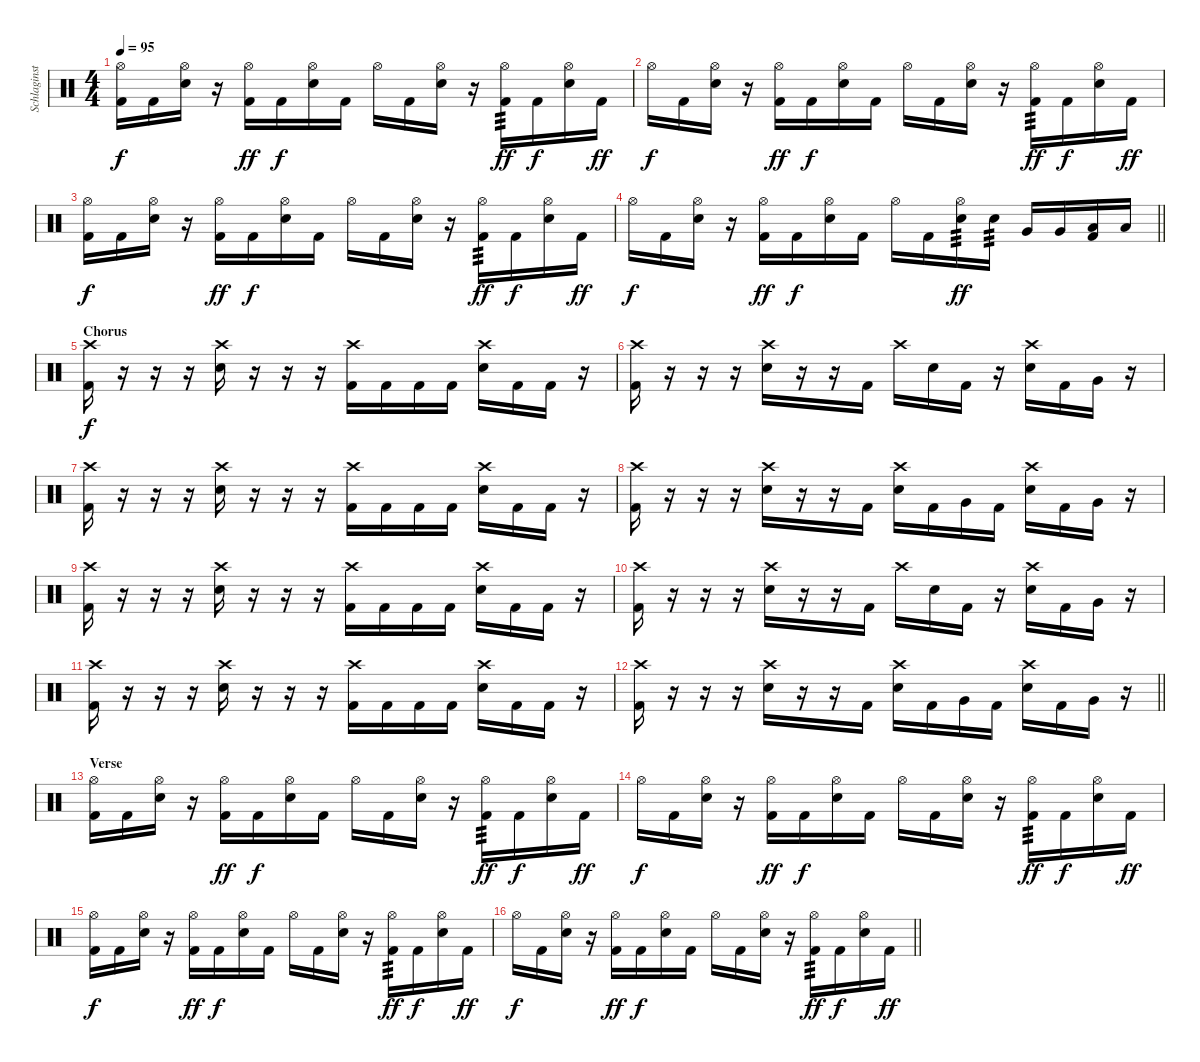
\track ("Schlaginstrumente - Auswahl" "Schlaginst") {instrument percussion}
\staff {score}
\articulation defaults
\ts (4 4)
\tempo 95
\clef neutral
\ks c
("Hi-Hat (open)" "Kick (hit) 2").16{dy f} "Kick (hit) 2".16 ("Hi-Hat (open)" "Electric Snare (hit)").16 r.16 ("Hi-Hat (open)" "Kick (hit) 2").16{dy ff} "Kick (hit) 2".16{dy f} ("Hi-Hat (open)" "Electric Snare (hit)").16 "Kick (hit) 2".16 "Hi-Hat (open)".16 "Kick (hit) 2".16 ("Hi-Hat (open)" "Electric Snare (hit)").16 r.16 ("Hi-Hat (open)" "Kick (hit) 2").16{tp 3 dy ff} "Kick (hit) 2".16{dy f} ("Hi-Hat (open)" "Electric Snare (hit)").16 "Kick (hit) 2".16{dy ff} |
"Hi-Hat (open)".16{dy f} "Kick (hit) 2".16 ("Hi-Hat (open)" "Electric Snare (hit)").16 r.16 ("Hi-Hat (open)" "Kick (hit) 2").16{dy ff} "Kick (hit) 2".16{dy f} ("Hi-Hat (open)" "Electric Snare (hit)").16 "Kick (hit) 2".16 "Hi-Hat (open)".16 "Kick (hit) 2".16 ("Hi-Hat (open)" "Electric Snare (hit)").16 r.16 ("Hi-Hat (open)" "Kick (hit) 2").16{tp 3 dy ff} "Kick (hit) 2".16{dy f} ("Hi-Hat (open)" "Electric Snare (hit)").16 "Kick (hit) 2".16{dy ff} |
("Hi-Hat (open)" "Kick (hit) 2").16{dy f} "Kick (hit) 2".16 ("Hi-Hat (open)" "Electric Snare (hit)").16 r.16 ("Hi-Hat (open)" "Kick (hit) 2").16{dy ff} "Kick (hit) 2".16{dy f} ("Hi-Hat (open)" "Electric Snare (hit)").16 "Kick (hit) 2".16 "Hi-Hat (open)".16 "Kick (hit) 2".16 ("Hi-Hat (open)" "Electric Snare (hit)").16 r.16 ("Hi-Hat (open)" "Kick (hit) 2").16{tp 3 dy ff} "Kick (hit) 2".16{dy f} ("Hi-Hat (open)" "Electric Snare (hit)").16 "Kick (hit) 2".16{dy ff} |
\barLineRight lightlight "Hi-Hat (open)".16{dy f} "Kick (hit) 2".16
("Hi-Hat (open)" "Electric Snare (hit)").16 r.16 ("Hi-Hat (open)" "Kick (hit) 2").16{dy ff} "Kick (hit) 2".16{dy f} ("Hi-Hat (open)" "Electric Snare (hit)").16 "Kick (hit) 2".16 "Hi-Hat (open)".16 "Kick (hit) 2".16 ("Hi-Hat (open)" "Electric Snare (hit)").16{tp 3 dy ff} "Electric Snare (hit)".16{tp 3} "Very Low Tom (hit)".16 "Very Low Tom (hit)".16 ("Low Floor Tom (hit)" "Kick (hit) 2").16 "Low Floor Tom (hit)".16 |
\section ("" "Chorus")
("Crash high (hit)" "Kick (hit) 2").16{dy f} r.16 r.16 r.16 ("Crash high (hit)" "Electric Snare (hit)").16 r.16 r.16 r.16 ("Crash high (hit)" "Kick (hit) 2").16 "Kick (hit) 2".16 "Kick (hit) 2".16 "Kick (hit) 2".16 ("Crash high (hit)" "Electric Snare (hit)").16 "Kick (hit) 2".16 "Kick (hit) 2".16 r.16 |
("Crash high (hit)" "Kick (hit) 2").16 r.16 r.16 r.16 ("Crash high (hit)" "Electric Snare (hit)").16 r.16 r.16 "Kick (hit) 2".16 "Crash high (hit)".16 "Electric Snare (hit)".16 "Kick (hit) 2".16 r.16 ("Crash high (hit)" "Electric Snare (hit)").16 "Kick (hit) 2".16 "Very Low Tom (hit)".16 r.16 |
("Crash high (hit)" "Kick (hit) 2").16 r.16 r.16 r.16 ("Crash high (hit)" "Electric Snare (hit)").16 r.16 r.16 r.16 ("Crash high (hit)" "Kick (hit) 2").16 "Kick (hit) 2".16 "Kick (hit) 2".16 "Kick (hit) 2".16 ("Crash high (hit)" "Electric Snare (hit)").16 "Kick (hit) 2".16 "Kick (hit) 2".16 r.16 |
("Crash high (hit)" "Kick (hit) 2").16 r.16 r.16 r.16 ("Crash high (hit)" "Electric Snare (hit)").16 r.16 r.16 "Kick (hit) 2".16 ("Crash high (hit)" "Electric Snare (hit)").16 "Kick (hit) 2".16 "Very Low Tom (hit)".16 "Kick (hit) 2".16 ("Crash high (hit)" "Electric Snare (hit)").16 "Kick (hit) 2".16 "Very Low Tom (hit)".16 r.16 |
("Crash high (hit)" "Kick (hit) 2").16 r.16 r.16 r.16 ("Crash high (hit)" "Electric Snare (hit)").16 r.16 r.16 r.16 ("Crash high (hit)" "Kick (hit) 2").16 "Kick (hit) 2".16 "Kick (hit) 2".16 "Kick (hit) 2".16 ("Crash high (hit)" "Electric Snare (hit)").16 "Kick (hit) 2".16 "Kick (hit) 2".16 r.16 |
("Crash high (hit)" "Kick (hit) 2").16 r.16 r.16 r.16 ("Crash high (hit)" "Electric Snare (hit)").16 r.16 r.16 "Kick (hit) 2".16 "Crash high (hit)".16 "Electric Snare (hit)".16 "Kick (hit) 2".16 r.16 ("Crash high (hit)" "Electric Snare (hit)").16 "Kick (hit) 2".16 "Very Low Tom (hit)".16 r.16 |
("Crash high (hit)" "Kick (hit) 2").16 r.16 r.16 r.16 ("Crash high (hit)" "Electric Snare (hit)").16 r.16 r.16 r.16 ("Crash high (hit)" "Kick (hit) 2").16 "Kick (hit) 2".16 "Kick (hit) 2".16 "Kick (hit) 2".16 ("Crash high (hit)" "Electric Snare (hit)").16 "Kick (hit) 2".16 "Kick (hit) 2".16 r.16 |
\barLineRight lightlight
("Crash high (hit)" "Kick (hit) 2").16 r.16 r.16 r.16 ("Crash high (hit)" "Electric Snare (hit)").16 r.16 r.16 "Kick (hit) 2".16 ("Crash high (hit)" "Electric Snare (hit)").16 "Kick (hit) 2".16 "Very Low Tom (hit)".16 "Kick (hit) 2".16 ("Crash high (hit)" "Electric Snare (hit)").16 "Kick (hit) 2".16 "Very Low Tom (hit)".16 r.16 |
\section ("" "Verse")
("Hi-Hat (open)" "Kick (hit) 2").16 "Kick (hit) 2".16 ("Hi-Hat (open)" "Electric Snare (hit)").16 r.16 ("Hi-Hat (open)" "Kick (hit) 2").16{dy ff} "Kick (hit) 2".16{dy f} ("Hi-Hat (open)" "Electric Snare (hit)").16 "Kick (hit) 2".16 "Hi-Hat (open)".16 "Kick (hit) 2".16 ("Hi-Hat (open)" "Electric Snare (hit)").16 r.16 ("Hi-Hat (open)" "Kick (hit) 2").16{tp 3 dy ff} "Kick (hit) 2".16{dy f} ("Hi-Hat (open)" "Electric Snare (hit)").16 "Kick (hit) 2".16{dy ff} |
"Hi-Hat (open)".16{dy f} "Kick (hit) 2".16 ("Hi-Hat (open)" "Electric Snare (hit)").16 r.16 ("Hi-Hat (open)" "Kick (hit) 2").16{dy ff} "Kick (hit) 2".16{dy f} ("Hi-Hat (open)" "Electric Snare (hit)").16 "Kick (hit) 2".16 "Hi-Hat (open)".16 "Kick (hit) 2".16 ("Hi-Hat (open)" "Electric Snare (hit)").16 r.16 ("Hi-Hat (open)" "Kick (hit) 2").16{tp 3 dy ff} "Kick (hit) 2".16{dy f} ("Hi-Hat (open)" "Electric Snare (hit)").16 "Kick (hit) 2".16{dy ff} |
("Hi-Hat (open)" "Kick (hit) 2").16{dy f} "Kick (hit) 2".16 ("Hi-Hat (open)" "Electric Snare (hit)").16 r.16 ("Hi-Hat (open)" "Kick (hit) 2").16{dy ff} "Kick (hit) 2".16{dy f} ("Hi-Hat (open)" "Electric Snare (hit)").16 "Kick (hit) 2".16 "Hi-Hat (open)".16 "Kick (hit) 2".16 ("Hi-Hat (open)" "Electric Snare (hit)").16 r.16 ("Hi-Hat (open)" "Kick (hit) 2").16{tp 3 dy ff} "Kick (hit) 2".16{dy f} ("Hi-Hat (open)" "Electric Snare (hit)").16 "Kick (hit) 2".16{dy ff} |
\barLineRight lightlight "Hi-Hat (open)".16{dy f} "Kick (hit) 2".16
("Hi-Hat (open)" "Electric Snare (hit)").16 r.16 ("Hi-Hat (open)" "Kick (hit) 2").16{dy ff} "Kick (hit) 2".16{dy f} ("Hi-Hat (open)" "Electric Snare (hit)").16 "Kick (hit) 2".16 "Hi-Hat (open)".16 "Kick (hit) 2".16 ("Hi-Hat (open)" "Electric Snare (hit)").16 r.16 ("Hi-Hat (open)" "Kick (hit) 2").16{tp 3 dy ff} "Kick (hit) 2".16{dy f} ("Hi-Hat (open)" "Electric Snare (hit)").16 "Kick (hit) 2".16{dy ff}
